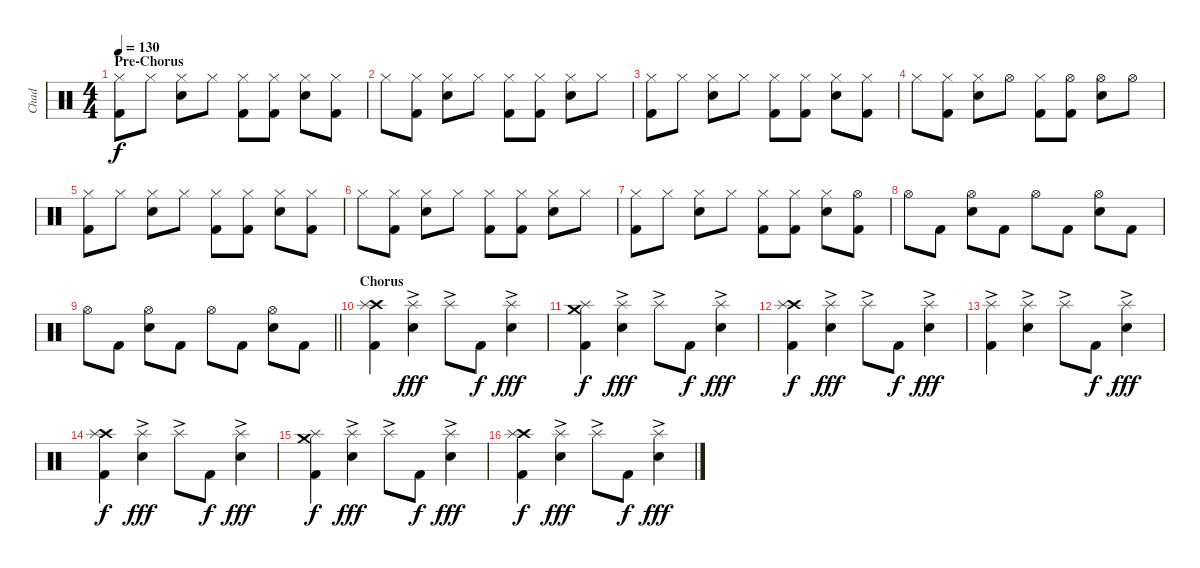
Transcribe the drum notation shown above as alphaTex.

\track ("Chad" "Chad") {instrument percussion}
\staff {score}
\articulation defaults
\ts (4 4)
\section ("" "Pre-Chorus")
\tempo 130
\clef neutral
\ks c
("Hi-Hat (closed)" "Kick (hit) 2").8{dy f} "Hi-Hat (closed)".8 ("Hi-Hat (closed)" "Snare (hit) 2").8 "Hi-Hat (closed)".8 ("Hi-Hat (closed)" "Kick (hit) 2").8 ("Hi-Hat (closed)" "Kick (hit) 2").8 ("Hi-Hat (closed)" "Snare (hit) 2").8 ("Hi-Hat (closed)" "Kick (hit) 2").8 |
"Hi-Hat (closed)".8 ("Hi-Hat (closed)" "Kick (hit) 2").8 ("Hi-Hat (closed)" "Snare (hit) 2").8 "Hi-Hat (closed)".8 ("Hi-Hat (closed)" "Kick (hit) 2").8 ("Hi-Hat (closed)" "Kick (hit) 2").8 ("Hi-Hat (closed)" "Snare (hit) 2").8 "Hi-Hat (closed)".8 |
("Hi-Hat (closed)" "Kick (hit) 2").8 "Hi-Hat (closed)".8 ("Hi-Hat (closed)" "Snare (hit) 2").8 "Hi-Hat (closed)".8 ("Hi-Hat (closed)" "Kick (hit) 2").8 ("Hi-Hat (closed)" "Kick (hit) 2").8 ("Hi-Hat (closed)" "Snare (hit) 2").8 ("Hi-Hat (closed)" "Kick (hit) 2").8 |
"Hi-Hat (closed)".8 ("Hi-Hat (closed)" "Kick (hit) 2").8 ("Hi-Hat (closed)" "Snare (hit) 2").8 "Hi-Hat (open)".8 ("Hi-Hat (closed)" "Kick (hit) 2").8 ("Hi-Hat (open)" "Kick (hit) 2").8 ("Hi-Hat (open)" "Snare (hit) 2").8 "Hi-Hat (open)".8 |
("Hi-Hat (closed)" "Kick (hit) 2").8 "Hi-Hat (closed)".8 ("Hi-Hat (closed)" "Snare (hit) 2").8 "Hi-Hat (closed)".8 ("Hi-Hat (closed)" "Kick (hit) 2").8 ("Hi-Hat (closed)" "Kick (hit) 2").8 ("Hi-Hat (closed)" "Snare (hit) 2").8 ("Hi-Hat (closed)" "Kick (hit) 2").8 |
"Hi-Hat (closed)".8 ("Hi-Hat (closed)" "Kick (hit) 2").8 ("Hi-Hat (closed)" "Snare (hit) 2").8 "Hi-Hat (closed)".8 ("Hi-Hat (closed)" "Kick (hit) 2").8 ("Hi-Hat (closed)" "Kick (hit) 2").8 ("Hi-Hat (closed)" "Snare (hit) 2").8 "Hi-Hat (closed)".8 |
("Hi-Hat (closed)" "Kick (hit) 2").8 "Hi-Hat (closed)".8 ("Hi-Hat (closed)" "Snare (hit) 2").8 "Hi-Hat (closed)".8 ("Hi-Hat (closed)" "Kick (hit) 2").8 ("Hi-Hat (closed)" "Kick (hit) 2").8 ("Hi-Hat (closed)" "Snare (hit) 2").8 ("Hi-Hat (open)" "Kick (hit) 2").8 |
"Hi-Hat (open)".8 "Kick (hit) 2".8 ("Hi-Hat (open)" "Snare (hit) 2").8 "Kick (hit) 2".8 "Hi-Hat (open)".8 "Kick (hit) 2".8 ("Hi-Hat (open)" "Snare (hit) 2").8 "Kick (hit) 2".8 |
\barLineRight lightlight "Hi-Hat (open)".8 "Kick (hit) 2".8
("Hi-Hat (open)" "Snare (hit) 2").8 "Kick (hit) 2".8 "Hi-Hat (open)".8 "Kick (hit) 2".8 ("Hi-Hat (open)" "Snare (hit) 2").8 "Kick (hit) 2".8 |
\section ("" "Chorus")
("Crash high (hit)" "Splash (hit)" "Kick (hit) 2").4 ("Splash (hit)"{ac} "Snare (hit) 2").4{dy fff} "Splash (hit)"{ac}.8 "Kick (hit) 2".8{dy f} ("Splash (hit)"{ac} "Snare (hit) 2").4{dy fff} |
("Crash medium (hit)" "Splash (hit)" "Kick (hit) 2").4{dy f} ("Splash (hit)"{ac} "Snare (hit) 2").4{dy fff} "Splash (hit)"{ac}.8 "Kick (hit) 2".8{dy f} ("Splash (hit)"{ac} "Snare (hit) 2").4{dy fff} |
("Crash high (hit)" "Splash (hit)" "Kick (hit) 2").4{dy f} ("Splash (hit)"{ac} "Snare (hit) 2").4{dy fff} "Splash (hit)"{ac}.8 "Kick (hit) 2".8{dy f} ("Splash (hit)"{ac} "Snare (hit) 2").4{dy fff} |
("Splash (hit)"{ac} "Kick (hit) 2").4 ("Splash (hit)"{ac} "Snare (hit) 2").4 "Splash (hit)"{ac}.8 "Kick (hit) 2".8{dy f} ("Splash (hit)"{ac} "Snare (hit) 2").4{dy fff} |
("Crash high (hit)" "Splash (hit)" "Kick (hit) 2").4{dy f} ("Splash (hit)"{ac} "Snare (hit) 2").4{dy fff} "Splash (hit)"{ac}.8 "Kick (hit) 2".8{dy f} ("Splash (hit)"{ac} "Snare (hit) 2").4{dy fff} |
("Crash medium (hit)" "Splash (hit)" "Kick (hit) 2").4{dy f} ("Splash (hit)"{ac} "Snare (hit) 2").4{dy fff} "Splash (hit)"{ac}.8 "Kick (hit) 2".8{dy f} ("Splash (hit)"{ac} "Snare (hit) 2").4{dy fff} |
("Crash high (hit)" "Splash (hit)" "Kick (hit) 2").4{dy f} ("Splash (hit)"{ac} "Snare (hit) 2").4{dy fff} "Splash (hit)"{ac}.8 "Kick (hit) 2".8{dy f} ("Splash (hit)"{ac} "Snare (hit) 2").4{dy fff}
